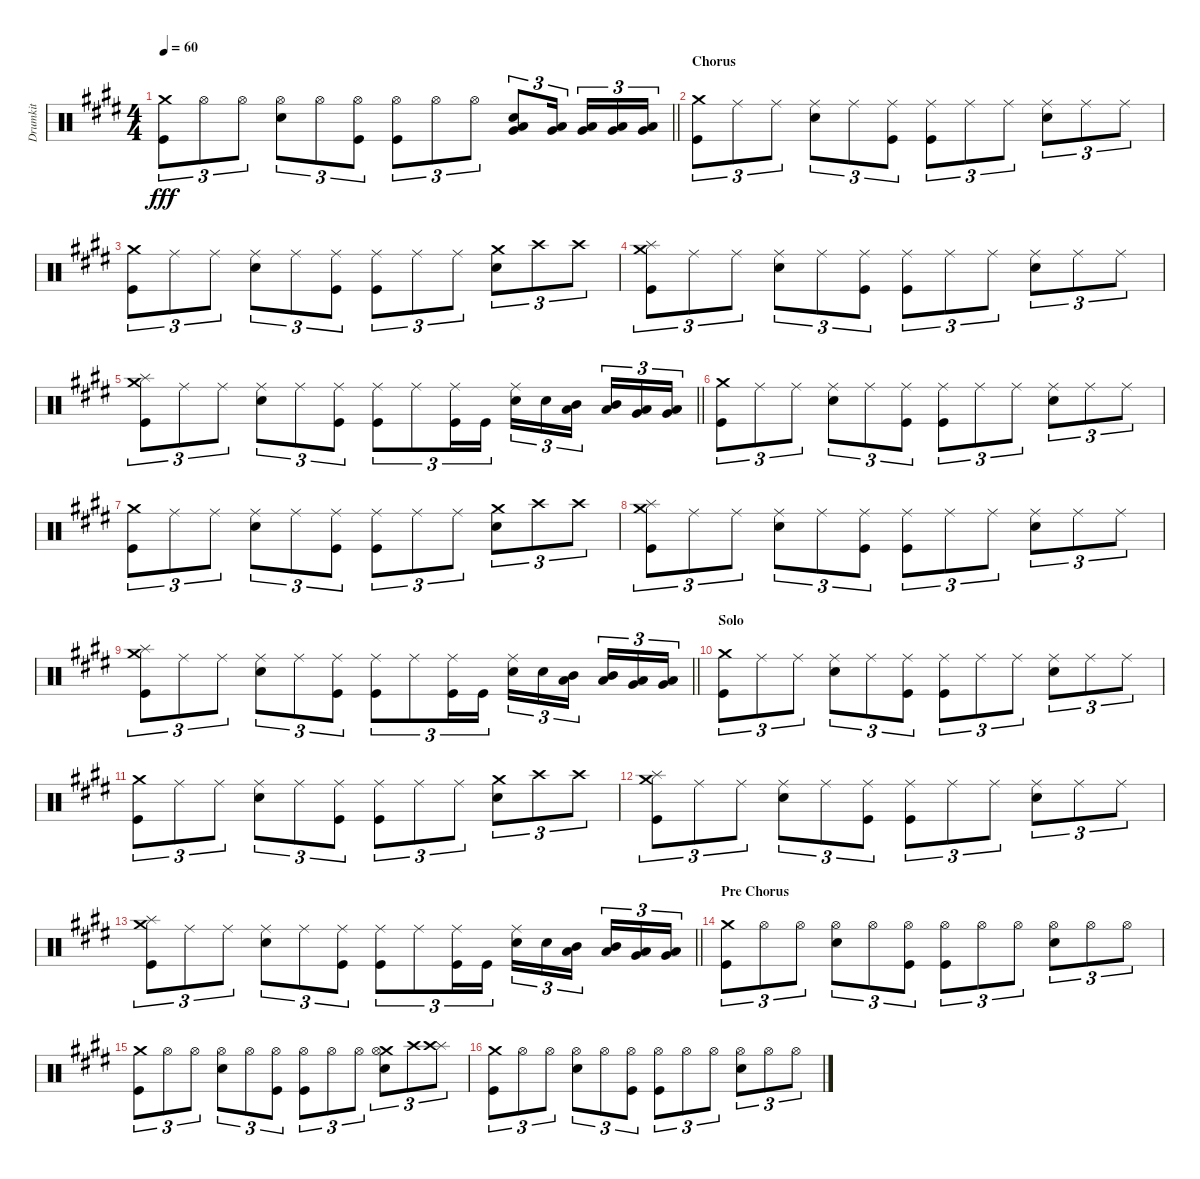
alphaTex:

\track ("Drumkit" "Drumkit") {instrument percussion}
\staff {score}
\articulation defaults
\ts (4 4)
\tempo 60
\clef neutral
\barLineRight lightlight
\ks e
("Crash medium (hit)" "Kick (hit)").8{tu (3 2) dy fff} "Hi-Hat (open)".8{tu (3 2)} "Hi-Hat (open)".8{tu (3 2)} ("Hi-Hat (open)" "Snare (hit) 2").8{tu (3 2)} "Hi-Hat (open)".8{tu (3 2)} ("Hi-Hat (open)" "Kick (hit)").8{tu (3 2)} ("Hi-Hat (open)" "Kick (hit)").8{tu (3 2)} "Hi-Hat (open)".8{tu (3 2)} "Hi-Hat (open)".8{tu (3 2)} ("Low Floor Tom (hit)" "Very Low Tom (hit)" "Snare (hit) 2").8{tu (3 2)} ("Low Floor Tom (hit)" "Very Low Tom (hit)").16{tu (3 2)} ("Low Floor Tom (hit)" "Very Low Tom (hit)").16{tu (3 2)} ("Low Floor Tom (hit)" "Very Low Tom (hit)").16{tu (3 2)} ("Low Floor Tom (hit)" "Very Low Tom (hit)").16{tu (3 2)} |
\section ("" "Chorus")
("Crash medium (hit)" "Kick (hit)").8{tu (3 2)} "Ride (middle)".8{tu (3 2)} "Ride (middle)".8{tu (3 2)} ("Ride (middle)" "Snare (hit) 2").8{tu (3 2)} "Ride (middle)".8{tu (3 2)} ("Ride (middle)" "Kick (hit)").8{tu (3 2)} ("Ride (middle)" "Kick (hit)").8{tu (3 2)} "Ride (middle)".8{tu (3 2)} "Ride (middle)".8{tu (3 2)} ("Ride (middle)" "Snare (hit) 2").8{tu (3 2)} "Ride (middle)".8{tu (3 2)} "Ride (middle)".8{tu (3 2)} |
("Crash medium (hit)" "Kick (hit)").8{tu (3 2)} "Ride (middle)".8{tu (3 2)} "Ride (middle)".8{tu (3 2)} ("Ride (middle)" "Snare (hit) 2").8{tu (3 2)} "Ride (middle)".8{tu (3 2)} ("Ride (middle)" "Kick (hit)").8{tu (3 2)} ("Ride (middle)" "Kick (hit)").8{tu (3 2)} "Ride (middle)".8{tu (3 2)} "Ride (middle)".8{tu (3 2)} ("Crash medium (hit)" "Snare (hit) 2").8{tu (3 2)} "Crash high (hit)".8{tu (3 2)} "Crash high (hit)".8{tu (3 2)} |
("Crash medium (hit)" "Splash (hit)" "Kick (hit)").8{tu (3 2)} "Ride (middle)".8{tu (3 2)} "Ride (middle)".8{tu (3 2)} ("Ride (middle)" "Snare (hit) 2").8{tu (3 2)} "Ride (middle)".8{tu (3 2)} ("Ride (middle)" "Kick (hit)").8{tu (3 2)} ("Ride (middle)" "Kick (hit)").8{tu (3 2)} "Ride (middle)".8{tu (3 2)} "Ride (middle)".8{tu (3 2)} ("Ride (middle)" "Snare (hit) 2").8{tu (3 2)} "Ride (middle)".8{tu (3 2)} "Ride (middle)".8{tu (3 2)} |
\barLineRight lightlight
("Crash medium (hit)" "Splash (hit)" "Kick (hit)").8{tu (3 2)} "Ride (middle)".8{tu (3 2)} "Ride (middle)".8{tu (3 2)} ("Ride (middle)" "Snare (hit) 2").8{tu (3 2)} "Ride (middle)".8{tu (3 2)} ("Ride (middle)" "Kick (hit)").8{tu (3 2)} ("Ride (middle)" "Kick (hit)").8{tu (3 2)} "Ride (middle)".8{tu (3 2)} ("Ride (middle)" "Kick (hit)").16{tu (3 2)} "Kick (hit)".16{tu (3 2)} ("Ride (middle)" "Snare (hit) 2").16{tu (3 2)} "Snare (hit) 2".16{tu (3 2)} ("Mid Tom (hit)" "Low Tom (hit)").16{tu (3 2)} ("Mid Tom (hit)" "Low Tom (hit)").16{tu (3 2)} ("Very Low Tom (hit)" "Low Floor Tom (hit)").16{tu (3 2)} ("Very Low Tom (hit)" "Low Floor Tom (hit)").16{tu (3 2)} |
("Crash medium (hit)" "Kick (hit)").8{tu (3 2)} "Ride (middle)".8{tu (3 2)} "Ride (middle)".8{tu (3 2)} ("Ride (middle)" "Snare (hit) 2").8{tu (3 2)} "Ride (middle)".8{tu (3 2)} ("Ride (middle)" "Kick (hit)").8{tu (3 2)} ("Ride (middle)" "Kick (hit)").8{tu (3 2)} "Ride (middle)".8{tu (3 2)} "Ride (middle)".8{tu (3 2)} ("Ride (middle)" "Snare (hit) 2").8{tu (3 2)} "Ride (middle)".8{tu (3 2)} "Ride (middle)".8{tu (3 2)} |
("Crash medium (hit)" "Kick (hit)").8{tu (3 2)} "Ride (middle)".8{tu (3 2)} "Ride (middle)".8{tu (3 2)} ("Ride (middle)" "Snare (hit) 2").8{tu (3 2)} "Ride (middle)".8{tu (3 2)} ("Ride (middle)" "Kick (hit)").8{tu (3 2)} ("Ride (middle)" "Kick (hit)").8{tu (3 2)} "Ride (middle)".8{tu (3 2)} "Ride (middle)".8{tu (3 2)} ("Crash medium (hit)" "Snare (hit) 2").8{tu (3 2)} "Crash high (hit)".8{tu (3 2)} "Crash high (hit)".8{tu (3 2)} |
("Crash medium (hit)" "Splash (hit)" "Kick (hit)").8{tu (3 2)} "Ride (middle)".8{tu (3 2)} "Ride (middle)".8{tu (3 2)} ("Ride (middle)" "Snare (hit) 2").8{tu (3 2)} "Ride (middle)".8{tu (3 2)} ("Ride (middle)" "Kick (hit)").8{tu (3 2)} ("Ride (middle)" "Kick (hit)").8{tu (3 2)} "Ride (middle)".8{tu (3 2)} "Ride (middle)".8{tu (3 2)} ("Ride (middle)" "Snare (hit) 2").8{tu (3 2)} "Ride (middle)".8{tu (3 2)} "Ride (middle)".8{tu (3 2)} |
\barLineRight lightlight
("Crash medium (hit)" "Splash (hit)" "Kick (hit)").8{tu (3 2)} "Ride (middle)".8{tu (3 2)} "Ride (middle)".8{tu (3 2)} ("Ride (middle)" "Snare (hit) 2").8{tu (3 2)} "Ride (middle)".8{tu (3 2)} ("Ride (middle)" "Kick (hit)").8{tu (3 2)} ("Ride (middle)" "Kick (hit)").8{tu (3 2)} "Ride (middle)".8{tu (3 2)} ("Ride (middle)" "Kick (hit)").16{tu (3 2)} "Kick (hit)".16{tu (3 2)} ("Ride (middle)" "Snare (hit) 2").16{tu (3 2)} "Snare (hit) 2".16{tu (3 2)} ("Mid Tom (hit)" "Low Tom (hit)").16{tu (3 2)} ("Mid Tom (hit)" "Low Tom (hit)").16{tu (3 2)} ("Very Low Tom (hit)" "Low Floor Tom (hit)").16{tu (3 2)} ("Very Low Tom (hit)" "Low Floor Tom (hit)").16{tu (3 2)} |
\section ("" "Solo")
("Crash medium (hit)" "Kick (hit)").8{tu (3 2)} "Ride (middle)".8{tu (3 2)} "Ride (middle)".8{tu (3 2)} ("Ride (middle)" "Snare (hit) 2").8{tu (3 2)} "Ride (middle)".8{tu (3 2)} ("Ride (middle)" "Kick (hit)").8{tu (3 2)} ("Ride (middle)" "Kick (hit)").8{tu (3 2)} "Ride (middle)".8{tu (3 2)} "Ride (middle)".8{tu (3 2)} ("Ride (middle)" "Snare (hit) 2").8{tu (3 2)} "Ride (middle)".8{tu (3 2)} "Ride (middle)".8{tu (3 2)} |
("Crash medium (hit)" "Kick (hit)").8{tu (3 2)} "Ride (middle)".8{tu (3 2)} "Ride (middle)".8{tu (3 2)} ("Ride (middle)" "Snare (hit) 2").8{tu (3 2)} "Ride (middle)".8{tu (3 2)} ("Ride (middle)" "Kick (hit)").8{tu (3 2)} ("Ride (middle)" "Kick (hit)").8{tu (3 2)} "Ride (middle)".8{tu (3 2)} "Ride (middle)".8{tu (3 2)} ("Crash medium (hit)" "Snare (hit) 2").8{tu (3 2)} "Crash high (hit)".8{tu (3 2)} "Crash high (hit)".8{tu (3 2)} |
("Crash medium (hit)" "Splash (hit)" "Kick (hit)").8{tu (3 2)} "Ride (middle)".8{tu (3 2)} "Ride (middle)".8{tu (3 2)} ("Ride (middle)" "Snare (hit) 2").8{tu (3 2)} "Ride (middle)".8{tu (3 2)} ("Ride (middle)" "Kick (hit)").8{tu (3 2)} ("Ride (middle)" "Kick (hit)").8{tu (3 2)} "Ride (middle)".8{tu (3 2)} "Ride (middle)".8{tu (3 2)} ("Ride (middle)" "Snare (hit) 2").8{tu (3 2)} "Ride (middle)".8{tu (3 2)} "Ride (middle)".8{tu (3 2)} |
\barLineRight lightlight
("Crash medium (hit)" "Splash (hit)" "Kick (hit)").8{tu (3 2)} "Ride (middle)".8{tu (3 2)} "Ride (middle)".8{tu (3 2)} ("Ride (middle)" "Snare (hit) 2").8{tu (3 2)} "Ride (middle)".8{tu (3 2)} ("Ride (middle)" "Kick (hit)").8{tu (3 2)} ("Ride (middle)" "Kick (hit)").8{tu (3 2)} "Ride (middle)".8{tu (3 2)} ("Ride (middle)" "Kick (hit)").16{tu (3 2)} "Kick (hit)".16{tu (3 2)} ("Ride (middle)" "Snare (hit) 2").16{tu (3 2)} "Snare (hit) 2".16{tu (3 2)} ("Mid Tom (hit)" "Low Tom (hit)").16{tu (3 2)} ("Mid Tom (hit)" "Low Tom (hit)").16{tu (3 2)} ("Very Low Tom (hit)" "Low Floor Tom (hit)").16{tu (3 2)} ("Very Low Tom (hit)" "Low Floor Tom (hit)").16{tu (3 2)} |
\section ("" "Pre Chorus")
("Crash medium (hit)" "Kick (hit)").8{tu (3 2)} "Hi-Hat (open)".8{tu (3 2)} "Hi-Hat (open)".8{tu (3 2)} ("Hi-Hat (open)" "Snare (hit) 2").8{tu (3 2)} "Hi-Hat (open)".8{tu (3 2)} ("Hi-Hat (open)" "Kick (hit)").8{tu (3 2)} ("Hi-Hat (open)" "Kick (hit)").8{tu (3 2)} "Hi-Hat (open)".8{tu (3 2)} "Hi-Hat (open)".8{tu (3 2)} ("Hi-Hat (open)" "Snare (hit) 2").8{tu (3 2)} "Hi-Hat (open)".8{tu (3 2)} "Hi-Hat (open)".8{tu (3 2)} |
("Crash medium (hit)" "Kick (hit)").8{tu (3 2)} "Hi-Hat (open)".8{tu (3 2)} "Hi-Hat (open)".8{tu (3 2)} ("Hi-Hat (open)" "Snare (hit) 2").8{tu (3 2)} "Hi-Hat (open)".8{tu (3 2)} ("Hi-Hat (open)" "Kick (hit)").8{tu (3 2)} ("Hi-Hat (open)" "Kick (hit)").8{tu (3 2)} "Hi-Hat (open)".8{tu (3 2)} "Hi-Hat (open)".8{tu (3 2)} ("Crash medium (hit)" "Hi-Hat (open)" "Snare (hit) 2").8{tu (3 2)} "Crash high (hit)".8{tu (3 2)} ("Splash (hit)" "Crash high (hit)").8{tu (3 2)} |
("Crash medium (hit)" "Kick (hit)").8{tu (3 2)} "Hi-Hat (open)".8{tu (3 2)} "Hi-Hat (open)".8{tu (3 2)} ("Hi-Hat (open)" "Snare (hit) 2").8{tu (3 2)} "Hi-Hat (open)".8{tu (3 2)} ("Hi-Hat (open)" "Kick (hit)").8{tu (3 2)} ("Hi-Hat (open)" "Kick (hit)").8{tu (3 2)} "Hi-Hat (open)".8{tu (3 2)} "Hi-Hat (open)".8{tu (3 2)} ("Hi-Hat (open)" "Snare (hit) 2").8{tu (3 2)} "Hi-Hat (open)".8{tu (3 2)} "Hi-Hat (open)".8{tu (3 2)}
